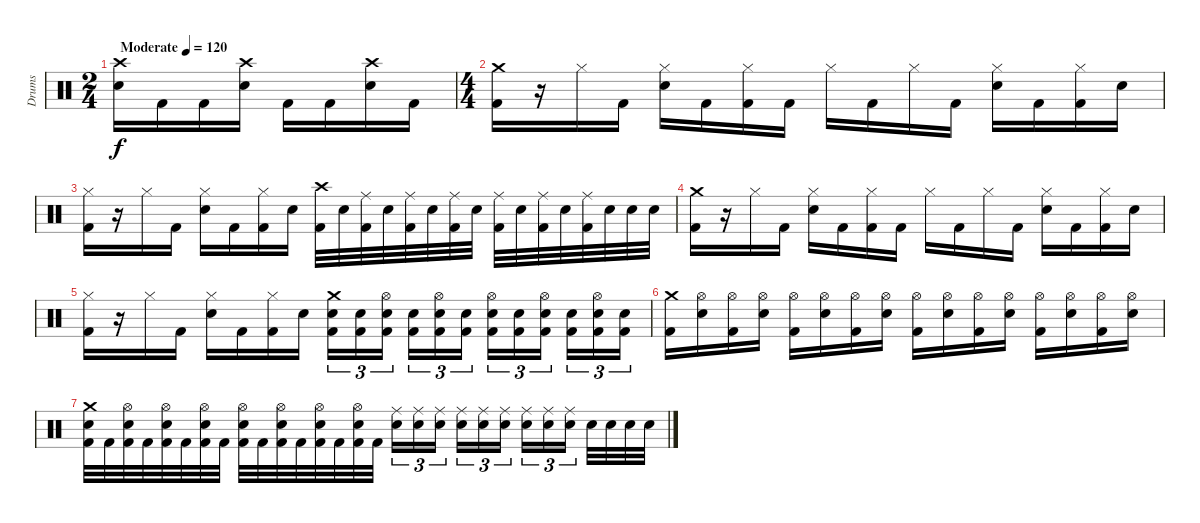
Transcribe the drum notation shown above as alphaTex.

\track ("Drums" "Drums") {instrument percussion}
\staff {score}
\articulation defaults
\ts (2 4)
\tempo (120 "Moderate")
\clef neutral
\ks c
("Crash high (hit)" "Electric Snare (hit)").16{dy f} "Kick (hit) 2".16 "Kick (hit) 2".16 ("Crash high (hit)" "Electric Snare (hit)").16 "Kick (hit) 2".16 "Kick (hit) 2".16 ("Crash high (hit)" "Electric Snare (hit)").16 "Kick (hit) 2".16 |
\ts (4 4)
("Crash medium (hit)" "Kick (hit) 2").16 r.16 "Hi-Hat (closed)".16 "Kick (hit) 2".16 ("Hi-Hat (closed)" "Electric Snare (hit)").16 "Kick (hit) 2".16 ("Hi-Hat (closed)" "Kick (hit) 2").16 "Kick (hit) 2".16 "Hi-Hat (closed)".16 "Kick (hit) 2".16 "Hi-Hat (closed)".16 "Kick (hit) 2".16 ("Hi-Hat (closed)" "Electric Snare (hit)").16 "Kick (hit) 2".16 ("Hi-Hat (closed)" "Kick (hit) 2").16 "Electric Snare (hit)".16 |
("Hi-Hat (closed)" "Kick (hit) 2").16 r.16 "Hi-Hat (closed)".16 "Kick (hit) 2".16 ("Hi-Hat (closed)" "Electric Snare (hit)").16 "Kick (hit) 2".16 ("Hi-Hat (closed)" "Kick (hit) 2").16 "Electric Snare (hit)".16 ("Crash high (hit)" "Kick (hit) 2").32 "Electric Snare (hit)".32 ("Ride (middle)" "Kick (hit) 2").32 "Electric Snare (hit)".32 ("Ride (middle)" "Kick (hit) 2").32 "Electric Snare (hit)".32 ("Ride (middle)" "Kick (hit) 2").32 "Electric Snare (hit)".32 ("Ride (middle)" "Kick (hit) 2").32 "Electric Snare (hit)".32 ("Ride (middle)" "Kick (hit) 2").32 "Electric Snare (hit)".32 ("Ride (middle)" "Kick (hit) 2").32 "Electric Snare (hit)".32 "Electric Snare (hit)".32 "Electric Snare (hit)".32 |
("Crash medium (hit)" "Kick (hit) 2").16 r.16 "Hi-Hat (closed)".16 "Kick (hit) 2".16 ("Hi-Hat (closed)" "Electric Snare (hit)").16 "Kick (hit) 2".16 ("Hi-Hat (closed)" "Kick (hit) 2").16 "Kick (hit) 2".16 "Hi-Hat (closed)".16 "Kick (hit) 2".16 "Hi-Hat (closed)".16 "Kick (hit) 2".16 ("Hi-Hat (closed)" "Electric Snare (hit)").16 "Kick (hit) 2".16 ("Hi-Hat (closed)" "Kick (hit) 2").16 "Electric Snare (hit)".16 |
("Hi-Hat (closed)" "Kick (hit) 2").16 r.16 "Hi-Hat (closed)".16 "Kick (hit) 2".16 ("Hi-Hat (closed)" "Electric Snare (hit)").16 "Kick (hit) 2".16 ("Hi-Hat (closed)" "Kick (hit) 2").16 "Electric Snare (hit)".16 ("Crash medium (hit)" "Electric Snare (hit)" "Kick (hit) 2").16{tu (3 2)} ("Electric Snare (hit)" "Kick (hit) 2").16{tu (3 2)} ("Hi-Hat (open)" "Electric Snare (hit)" "Kick (hit) 2").16{tu (3 2) beam splitsecondary} ("Electric Snare (hit)" "Kick (hit) 2").16{tu (3 2)} ("Hi-Hat (open)" "Electric Snare (hit)" "Kick (hit) 2").16{tu (3 2)} ("Electric Snare (hit)" "Kick (hit) 2").16{tu (3 2)} ("Hi-Hat (open)" "Electric Snare (hit)" "Kick (hit) 2").16{tu (3 2)} ("Electric Snare (hit)" "Kick (hit) 2").16{tu (3 2)} ("Hi-Hat (open)" "Electric Snare (hit)" "Kick (hit) 2").16{tu (3 2) beam splitsecondary} ("Electric Snare (hit)" "Kick (hit) 2").16{tu (3 2)} ("Hi-Hat (open)" "Electric Snare (hit)" "Kick (hit) 2").16{tu (3 2)} ("Electric Snare (hit)" "Kick (hit) 2").16{tu (3 2)} |
("Crash medium (hit)" "Kick (hit) 2").16 ("Hi-Hat (open)" "Electric Snare (hit)").16 ("Hi-Hat (open)" "Kick (hit) 2").16 ("Hi-Hat (open)" "Electric Snare (hit)").16 ("Hi-Hat (open)" "Kick (hit) 2").16 ("Hi-Hat (open)" "Electric Snare (hit)").16 ("Hi-Hat (open)" "Kick (hit) 2").16 ("Hi-Hat (open)" "Electric Snare (hit)").16 ("Hi-Hat (open)" "Kick (hit) 2").16 ("Hi-Hat (open)" "Electric Snare (hit)").16 ("Hi-Hat (open)" "Kick (hit) 2").16 ("Hi-Hat (open)" "Electric Snare (hit)").16 ("Hi-Hat (open)" "Kick (hit) 2").16 ("Hi-Hat (open)" "Electric Snare (hit)").16 ("Hi-Hat (open)" "Kick (hit) 2").16 ("Hi-Hat (open)" "Electric Snare (hit)").16 |
("Crash medium (hit)" "Electric Snare (hit)" "Kick (hit) 2").32 "Kick (hit) 2".32 ("Hi-Hat (open)" "Electric Snare (hit)" "Kick (hit) 2").32 "Kick (hit) 2".32 ("Hi-Hat (open)" "Electric Snare (hit)" "Kick (hit) 2").32 "Kick (hit) 2".32 ("Hi-Hat (open)" "Electric Snare (hit)" "Kick (hit) 2").32 "Kick (hit) 2".32 ("Hi-Hat (open)" "Electric Snare (hit)" "Kick (hit) 2").32 "Kick (hit) 2".32 ("Hi-Hat (open)" "Electric Snare (hit)" "Kick (hit) 2").32 "Kick (hit) 2".32 ("Hi-Hat (open)" "Electric Snare (hit)" "Kick (hit) 2").32 "Kick (hit) 2".32 ("Hi-Hat (open)" "Electric Snare (hit)" "Kick (hit) 2").32 "Kick (hit) 2".32 ("Ride (middle)" "Electric Snare (hit)").16{tu (3 2)} ("Ride (middle)" "Electric Snare (hit)").16{tu (3 2)} ("Ride (middle)" "Electric Snare (hit)").16{tu (3 2) beam splitsecondary} ("Ride (middle)" "Electric Snare (hit)").16{tu (3 2)} ("Ride (middle)" "Electric Snare (hit)").16{tu (3 2)} ("Ride (middle)" "Electric Snare (hit)").16{tu (3 2)} ("Ride (middle)" "Electric Snare (hit)").16{tu (3 2)} ("Ride (middle)" "Electric Snare (hit)").16{tu (3 2)} ("Ride (middle)" "Electric Snare (hit)").16{tu (3 2) beam splitsecondary} "Electric Snare (hit)".32 "Electric Snare (hit)".32 "Electric Snare (hit)".32 "Electric Snare (hit)".32
